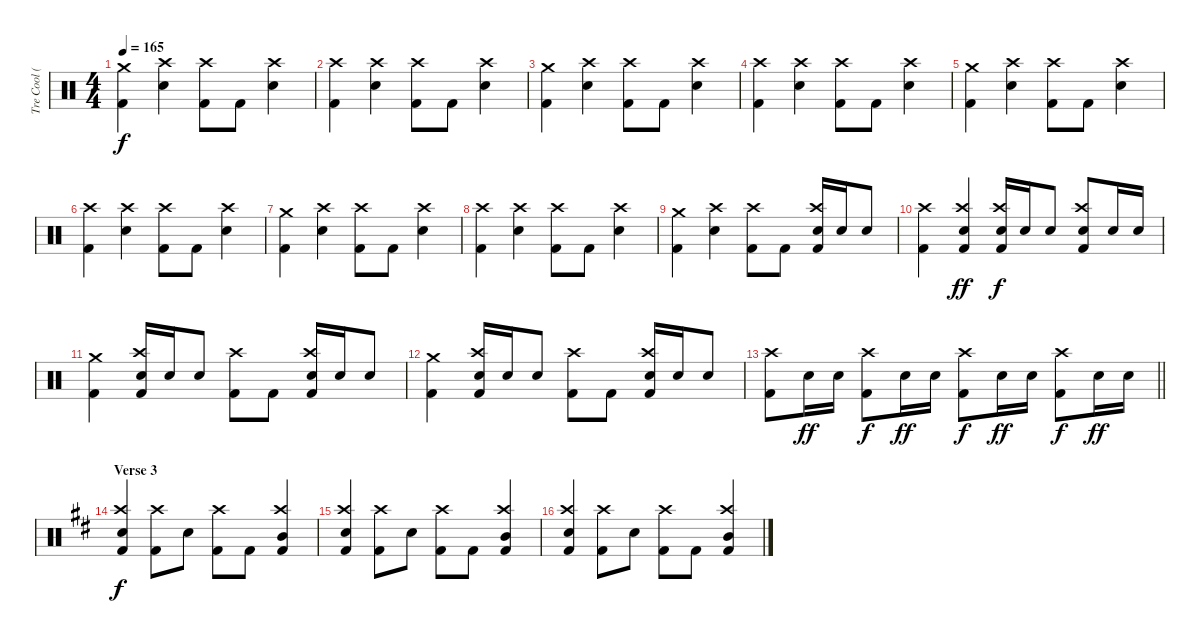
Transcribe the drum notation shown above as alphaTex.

\track ("Tre Cool (Drums)" "Tre Cool (") {instrument percussion}
\staff {score}
\articulation defaults
\ts (4 4)
\tempo 165
\clef neutral
\ks c
("Crash medium (hit)" "Kick (hit) 2").4{dy f} ("Crash high (hit)" "Electric Snare (hit)").4 ("Crash high (hit)" "Kick (hit) 2").8 "Kick (hit) 2".8 ("Crash high (hit)" "Electric Snare (hit)").4 |
("Crash high (hit)" "Kick (hit) 2").4 ("Crash high (hit)" "Electric Snare (hit)").4 ("Crash high (hit)" "Kick (hit) 2").8 "Kick (hit) 2".8 ("Crash high (hit)" "Electric Snare (hit)").4 |
("Crash medium (hit)" "Kick (hit) 2").4 ("Crash high (hit)" "Electric Snare (hit)").4 ("Crash high (hit)" "Kick (hit) 2").8 "Kick (hit) 2".8 ("Crash high (hit)" "Electric Snare (hit)").4 |
("Crash high (hit)" "Kick (hit) 2").4 ("Crash high (hit)" "Electric Snare (hit)").4 ("Crash high (hit)" "Kick (hit) 2").8 "Kick (hit) 2".8 ("Crash high (hit)" "Electric Snare (hit)").4 |
("Crash medium (hit)" "Kick (hit) 2").4 ("Crash high (hit)" "Electric Snare (hit)").4 ("Crash high (hit)" "Kick (hit) 2").8 "Kick (hit) 2".8 ("Crash high (hit)" "Electric Snare (hit)").4 |
("Crash high (hit)" "Kick (hit) 2").4 ("Crash high (hit)" "Electric Snare (hit)").4 ("Crash high (hit)" "Kick (hit) 2").8 "Kick (hit) 2".8 ("Crash high (hit)" "Electric Snare (hit)").4 |
("Crash medium (hit)" "Kick (hit) 2").4 ("Crash high (hit)" "Electric Snare (hit)").4 ("Crash high (hit)" "Kick (hit) 2").8 "Kick (hit) 2".8 ("Crash high (hit)" "Electric Snare (hit)").4 |
("Crash high (hit)" "Kick (hit) 2").4 ("Crash high (hit)" "Electric Snare (hit)").4 ("Crash high (hit)" "Kick (hit) 2").8 "Kick (hit) 2".8 ("Crash high (hit)" "Electric Snare (hit)").4 |
("Crash medium (hit)" "Kick (hit) 2").4 ("Crash high (hit)" "Electric Snare (hit)").4 ("Crash high (hit)" "Kick (hit) 2").8 "Kick (hit) 2".8 ("Crash high (hit)" "Electric Snare (hit)" "Kick (hit) 2").16 "Electric Snare (hit)".16 "Electric Snare (hit)".8 |
("Crash high (hit)" "Kick (hit) 2").4 ("Crash high (hit)" "Electric Snare (hit)" "Kick (hit) 2").4{dy ff} ("Crash high (hit)" "Electric Snare (hit)" "Kick (hit) 2").16{dy f} "Electric Snare (hit)".16 "Electric Snare (hit)".8 ("Crash high (hit)" "Electric Snare (hit)" "Kick (hit) 2").8 "Electric Snare (hit)".16 "Electric Snare (hit)".16 |
("Crash medium (hit)" "Kick (hit) 2").4 ("Crash high (hit)" "Electric Snare (hit)" "Kick (hit) 2").16 "Electric Snare (hit)".16 "Electric Snare (hit)".8 ("Crash high (hit)" "Kick (hit) 2").8 "Kick (hit) 2".8 ("Crash high (hit)" "Electric Snare (hit)" "Kick (hit) 2").16 "Electric Snare (hit)".16 "Electric Snare (hit)".8 |
("Crash medium (hit)" "Kick (hit) 2").4 ("Crash high (hit)" "Electric Snare (hit)" "Kick (hit) 2").16 "Electric Snare (hit)".16 "Electric Snare (hit)".8 ("Crash high (hit)" "Kick (hit) 2").8 "Kick (hit) 2".8 ("Crash high (hit)" "Electric Snare (hit)" "Kick (hit) 2").16 "Electric Snare (hit)".16 "Electric Snare (hit)".8 |
\barLineRight lightlight
("Crash high (hit)" "Kick (hit) 2").8 "Electric Snare (hit)".16{dy ff} "Electric Snare (hit)".16 ("Crash high (hit)" "Kick (hit) 2").8{dy f} "Electric Snare (hit)".16{dy ff} "Electric Snare (hit)".16 ("Crash high (hit)" "Kick (hit) 2").8{dy f} "Electric Snare (hit)".16{dy ff} "Electric Snare (hit)".16 ("Crash high (hit)" "Kick (hit) 2").8{dy f} "Electric Snare (hit)".16{dy ff} "Electric Snare (hit)".16 |
\section ("" "Verse 3")
\ks d
("Crash high (hit)" "Electric Snare (hit)" "Kick (hit) 2").4{dy f} ("Crash high (hit)" "Kick (hit) 2").8 "Electric Snare (hit)".8 ("Crash high (hit)" "Kick (hit) 2").8 "Kick (hit) 2".8 ("Crash high (hit)" "Mid Tom (hit)" "Kick (hit) 2").4 |
("Crash high (hit)" "Electric Snare (hit)" "Kick (hit) 2").4 ("Crash high (hit)" "Kick (hit) 2").8 "Electric Snare (hit)".8 ("Crash high (hit)" "Kick (hit) 2").8 "Kick (hit) 2".8 ("Crash high (hit)" "Mid Tom (hit)" "Kick (hit) 2").4 |
("Crash high (hit)" "Electric Snare (hit)" "Kick (hit) 2").4 ("Crash high (hit)" "Kick (hit) 2").8 "Electric Snare (hit)".8 ("Crash high (hit)" "Kick (hit) 2").8 "Kick (hit) 2".8 ("Crash high (hit)" "Mid Tom (hit)" "Kick (hit) 2").4
